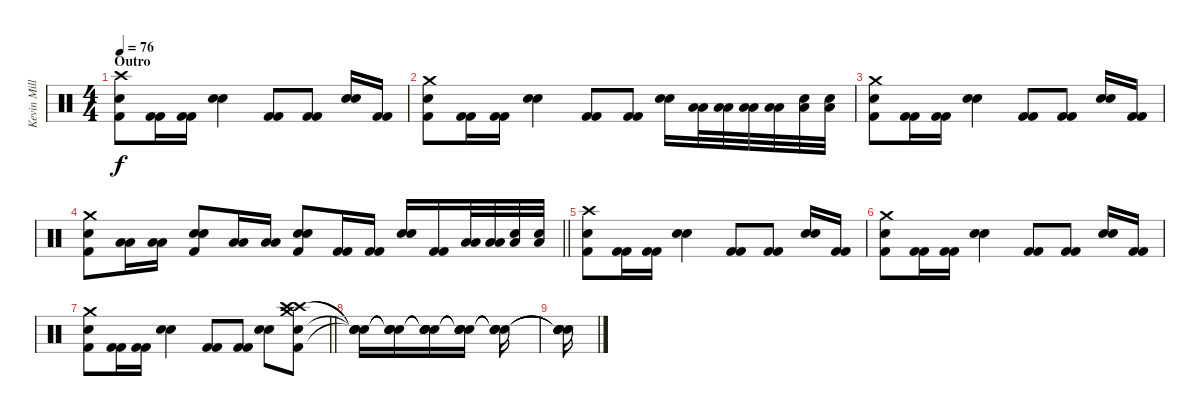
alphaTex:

\track ("Kevin Miller (Drums)" "Kevin Mill") {instrument percussion}
\staff {score}
\articulation defaults
\ts (4 4)
\section ("" "Outro")
\tempo 76
\clef neutral
\ks c
("Crash high (hit)" "Electric Snare (hit)" "Kick (hit) 2").8{dy f} ("Kick (hit) 2" "Kick (hit) 2").16 ("Kick (hit) 2" "Kick (hit) 2").16 ("Electric Snare (hit)" "Electric Snare (hit)").4 ("Kick (hit) 2" "Kick (hit) 2").8 ("Kick (hit) 2" "Kick (hit) 2").8 ("Electric Snare (hit)" "Electric Snare (hit)").16 ("Kick (hit) 2" "Kick (hit) 2").16 |
("Crash medium (hit)" "Electric Snare (hit)" "Kick (hit) 2").8 ("Kick (hit) 2" "Kick (hit) 2").16 ("Kick (hit) 2" "Kick (hit) 2").16 ("Electric Snare (hit)" "Electric Snare (hit)").4 ("Kick (hit) 2" "Kick (hit) 2").8 ("Kick (hit) 2" "Kick (hit) 2").8 ("Electric Snare (hit)" "Electric Snare (hit)").16 ("Low Tom (hit)" "Low Tom (hit)").32 ("Low Tom (hit)" "Low Tom (hit)").32 ("Low Tom (hit)" "Low Tom (hit)").32 ("Low Tom (hit)" "Low Tom (hit)").32 ("Low Tom (hit)" "Electric Snare (hit)").32 ("Low Tom (hit)" "Electric Snare (hit)").32 |
("Crash medium (hit)" "Electric Snare (hit)" "Kick (hit) 2").8 ("Kick (hit) 2" "Kick (hit) 2").16 ("Kick (hit) 2" "Kick (hit) 2").16 ("Electric Snare (hit)" "Electric Snare (hit)").4 ("Kick (hit) 2" "Kick (hit) 2").8 ("Kick (hit) 2" "Kick (hit) 2").8 ("Electric Snare (hit)" "Electric Snare (hit)").16 ("Kick (hit) 2" "Kick (hit) 2").16 |
\barLineRight lightlight
("Crash medium (hit)" "Electric Snare (hit)" "Kick (hit) 2").8 ("Low Tom (hit)" "Low Tom (hit)").16 ("Low Tom (hit)" "Low Tom (hit)").16 ("Electric Snare (hit)" "Electric Snare (hit)" "Kick (hit) 2").8 ("Low Tom (hit)" "Low Tom (hit)").16 ("Low Tom (hit)" "Low Tom (hit)").16 ("Electric Snare (hit)" "Electric Snare (hit)" "Kick (hit) 2").8 ("Kick (hit) 2" "Kick (hit) 2").16 ("Kick (hit) 2" "Kick (hit) 2").16 ("Electric Snare (hit)" "Electric Snare (hit)").16 ("Kick (hit) 2" "Kick (hit) 2").16 ("Low Tom (hit)" "Low Tom (hit)").32 ("Low Tom (hit)" "Low Tom (hit)").32 ("Low Tom (hit)" "Electric Snare (hit)").32 ("Low Tom (hit)" "Electric Snare (hit)").32 |
("Crash high (hit)" "Electric Snare (hit)" "Kick (hit) 2").8 ("Kick (hit) 2" "Kick (hit) 2").16 ("Kick (hit) 2" "Kick (hit) 2").16 ("Electric Snare (hit)" "Electric Snare (hit)").4 ("Kick (hit) 2" "Kick (hit) 2").8 ("Kick (hit) 2" "Kick (hit) 2").8 ("Electric Snare (hit)" "Electric Snare (hit)").16 ("Kick (hit) 2" "Kick (hit) 2").16 |
("Crash medium (hit)" "Electric Snare (hit)" "Kick (hit) 2").8 ("Kick (hit) 2" "Kick (hit) 2").16 ("Kick (hit) 2" "Kick (hit) 2").16 ("Electric Snare (hit)" "Electric Snare (hit)").4 ("Kick (hit) 2" "Kick (hit) 2").8 ("Kick (hit) 2" "Kick (hit) 2").8 ("Electric Snare (hit)" "Electric Snare (hit)").16 ("Kick (hit) 2" "Kick (hit) 2").16 |
\barLineRight lightlight
("Crash medium (hit)" "Electric Snare (hit)" "Kick (hit) 2").8 ("Kick (hit) 2" "Kick (hit) 2").16 ("Kick (hit) 2" "Kick (hit) 2").16 ("Electric Snare (hit)" "Electric Snare (hit)").4 ("Kick (hit) 2" "Kick (hit) 2").8 ("Kick (hit) 2" "Kick (hit) 2").8 ("Electric Snare (hit)" "Electric Snare (hit)").8 ("Crash high (hit)" "Kick (hit) 2" "Electric Snare (hit)" "Crash high (hit)" "Crash medium (hit)").8 |
("Snare (hit)"{t} "Snare (hit)"{t} "Snare (hit)"{t} "Snare (hit)"{t}).16 ("Snare (hit)"{t} "Snare (hit)"{t} "Snare (hit)"{t} "Snare (hit)"{t}).16 ("Snare (hit)"{t} "Snare (hit)"{t} "Snare (hit)"{t} "Snare (hit)"{t}).16 ("Snare (hit)"{t} "Snare (hit)"{t} "Snare (hit)"{t} "Snare (hit)"{t}).16 ("Snare (hit)"{t} "Snare (hit)"{t} "Snare (hit)"{t} "Snare (hit)"{t}).16 |
("Snare (hit)"{t} "Snare (hit)"{t} "Snare (hit)"{t} "Snare (hit)"{t}).16
